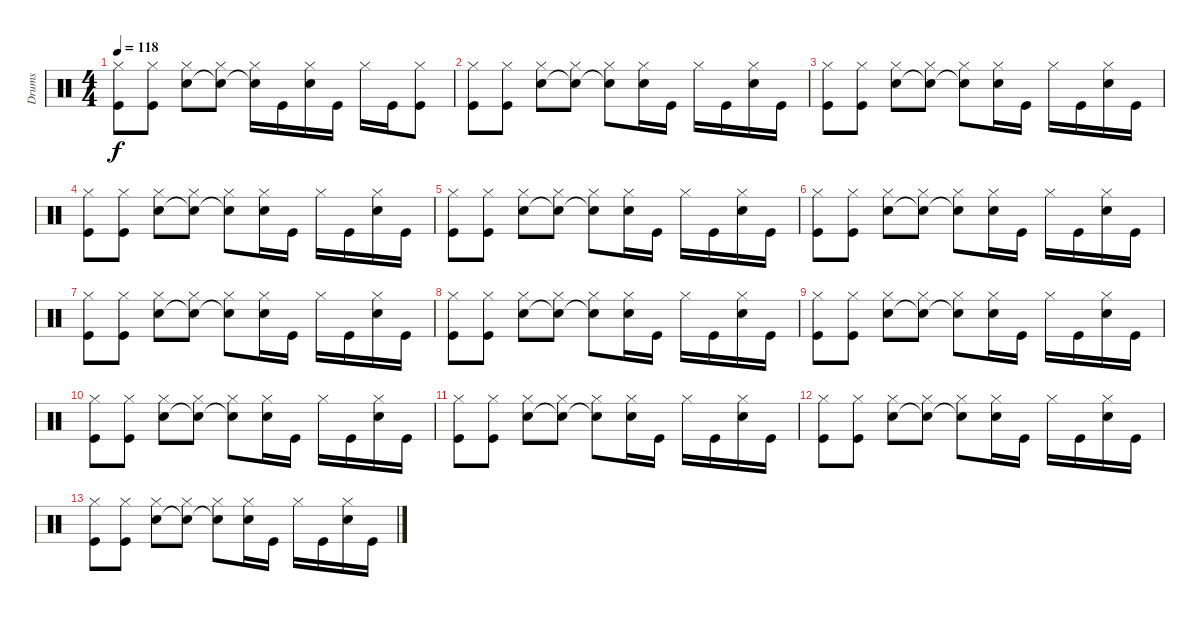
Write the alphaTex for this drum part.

\track ("Drums" "Drums") {instrument percussion}
\staff {score}
\articulation defaults
\ts (4 4)
\tempo 118
\clef neutral
\ks c
("Hi-Hat (closed)" "Kick (hit)").8{dy f} ("Hi-Hat (closed)" "Kick (hit)").8 ("Hi-Hat (closed)" "Snare (hit) 2").8 ("Hi-Hat (closed)" "Snare (hit)"{t}).8 ("Hi-Hat (closed)" "Snare (hit)"{t}).16 "Kick (hit)".16 ("Hi-Hat (closed)" "Snare (hit) 2").16 "Kick (hit)".16 "Hi-Hat (closed)".16 "Kick (hit)".16 ("Hi-Hat (closed)" "Kick (hit)").8 |
("Hi-Hat (closed)" "Kick (hit)").8 ("Hi-Hat (closed)" "Kick (hit)").8 ("Hi-Hat (closed)" "Snare (hit) 2").8 ("Hi-Hat (closed)" "Snare (hit)"{t}).8 ("Hi-Hat (closed)" "Snare (hit)"{t}).8 ("Hi-Hat (closed)" "Snare (hit) 2").16 "Kick (hit)".16 "Hi-Hat (closed)".16 "Kick (hit)".16 ("Hi-Hat (closed)" "Snare (hit) 2").16 "Kick (hit)".16 |
("Hi-Hat (closed)" "Kick (hit)").8 ("Hi-Hat (closed)" "Kick (hit)").8 ("Hi-Hat (closed)" "Snare (hit) 2").8 ("Hi-Hat (closed)" "Snare (hit)"{t}).8 ("Hi-Hat (closed)" "Snare (hit)"{t}).8 ("Hi-Hat (closed)" "Snare (hit) 2").16 "Kick (hit)".16 "Hi-Hat (closed)".16 "Kick (hit)".16 ("Hi-Hat (closed)" "Snare (hit) 2").16 "Kick (hit)".16 |
("Hi-Hat (closed)" "Kick (hit)").8 ("Hi-Hat (closed)" "Kick (hit)").8 ("Hi-Hat (closed)" "Snare (hit) 2").8 ("Hi-Hat (closed)" "Snare (hit)"{t}).8 ("Hi-Hat (closed)" "Snare (hit)"{t}).8 ("Hi-Hat (closed)" "Snare (hit) 2").16 "Kick (hit)".16 "Hi-Hat (closed)".16 "Kick (hit)".16 ("Hi-Hat (closed)" "Snare (hit) 2").16 "Kick (hit)".16 |
("Hi-Hat (closed)" "Kick (hit)").8 ("Hi-Hat (closed)" "Kick (hit)").8 ("Hi-Hat (closed)" "Snare (hit) 2").8 ("Hi-Hat (closed)" "Snare (hit)"{t}).8 ("Hi-Hat (closed)" "Snare (hit)"{t}).8 ("Hi-Hat (closed)" "Snare (hit) 2").16 "Kick (hit)".16 "Hi-Hat (closed)".16 "Kick (hit)".16 ("Hi-Hat (closed)" "Snare (hit) 2").16 "Kick (hit)".16 |
("Hi-Hat (closed)" "Kick (hit)").8 ("Hi-Hat (closed)" "Kick (hit)").8 ("Hi-Hat (closed)" "Snare (hit) 2").8 ("Hi-Hat (closed)" "Snare (hit)"{t}).8 ("Hi-Hat (closed)" "Snare (hit)"{t}).8 ("Hi-Hat (closed)" "Snare (hit) 2").16 "Kick (hit)".16 "Hi-Hat (closed)".16 "Kick (hit)".16 ("Hi-Hat (closed)" "Snare (hit) 2").16 "Kick (hit)".16 |
("Hi-Hat (closed)" "Kick (hit)").8 ("Hi-Hat (closed)" "Kick (hit)").8 ("Hi-Hat (closed)" "Snare (hit) 2").8 ("Hi-Hat (closed)" "Snare (hit)"{t}).8 ("Hi-Hat (closed)" "Snare (hit)"{t}).8 ("Hi-Hat (closed)" "Snare (hit) 2").16 "Kick (hit)".16 "Hi-Hat (closed)".16 "Kick (hit)".16 ("Hi-Hat (closed)" "Snare (hit) 2").16 "Kick (hit)".16 |
("Hi-Hat (closed)" "Kick (hit)").8 ("Hi-Hat (closed)" "Kick (hit)").8 ("Hi-Hat (closed)" "Snare (hit) 2").8 ("Hi-Hat (closed)" "Snare (hit)"{t}).8 ("Hi-Hat (closed)" "Snare (hit)"{t}).8 ("Hi-Hat (closed)" "Snare (hit) 2").16 "Kick (hit)".16 "Hi-Hat (closed)".16 "Kick (hit)".16 ("Hi-Hat (closed)" "Snare (hit) 2").16 "Kick (hit)".16 |
("Hi-Hat (closed)" "Kick (hit)").8 ("Hi-Hat (closed)" "Kick (hit)").8 ("Hi-Hat (closed)" "Snare (hit) 2").8 ("Hi-Hat (closed)" "Snare (hit)"{t}).8 ("Hi-Hat (closed)" "Snare (hit)"{t}).8 ("Hi-Hat (closed)" "Snare (hit) 2").16 "Kick (hit)".16 "Hi-Hat (closed)".16 "Kick (hit)".16 ("Hi-Hat (closed)" "Snare (hit) 2").16 "Kick (hit)".16 |
("Hi-Hat (closed)" "Kick (hit)").8 ("Hi-Hat (closed)" "Kick (hit)").8 ("Hi-Hat (closed)" "Snare (hit) 2").8 ("Hi-Hat (closed)" "Snare (hit)"{t}).8 ("Hi-Hat (closed)" "Snare (hit)"{t}).8 ("Hi-Hat (closed)" "Snare (hit) 2").16 "Kick (hit)".16 "Hi-Hat (closed)".16 "Kick (hit)".16 ("Hi-Hat (closed)" "Snare (hit) 2").16 "Kick (hit)".16 |
("Hi-Hat (closed)" "Kick (hit)").8 ("Hi-Hat (closed)" "Kick (hit)").8 ("Hi-Hat (closed)" "Snare (hit) 2").8 ("Hi-Hat (closed)" "Snare (hit)"{t}).8 ("Hi-Hat (closed)" "Snare (hit)"{t}).8 ("Hi-Hat (closed)" "Snare (hit) 2").16 "Kick (hit)".16 "Hi-Hat (closed)".16 "Kick (hit)".16 ("Hi-Hat (closed)" "Snare (hit) 2").16 "Kick (hit)".16 |
("Hi-Hat (closed)" "Kick (hit)").8 ("Hi-Hat (closed)" "Kick (hit)").8 ("Hi-Hat (closed)" "Snare (hit) 2").8 ("Hi-Hat (closed)" "Snare (hit)"{t}).8 ("Hi-Hat (closed)" "Snare (hit)"{t}).8 ("Hi-Hat (closed)" "Snare (hit) 2").16 "Kick (hit)".16 "Hi-Hat (closed)".16 "Kick (hit)".16 ("Hi-Hat (closed)" "Snare (hit) 2").16 "Kick (hit)".16 |
("Hi-Hat (closed)" "Kick (hit)").8 ("Hi-Hat (closed)" "Kick (hit)").8 ("Hi-Hat (closed)" "Snare (hit) 2").8 ("Hi-Hat (closed)" "Snare (hit)"{t}).8 ("Hi-Hat (closed)" "Snare (hit)"{t}).8 ("Hi-Hat (closed)" "Snare (hit) 2").16 "Kick (hit)".16 "Hi-Hat (closed)".16 "Kick (hit)".16 ("Hi-Hat (closed)" "Snare (hit) 2").16 "Kick (hit)".16
